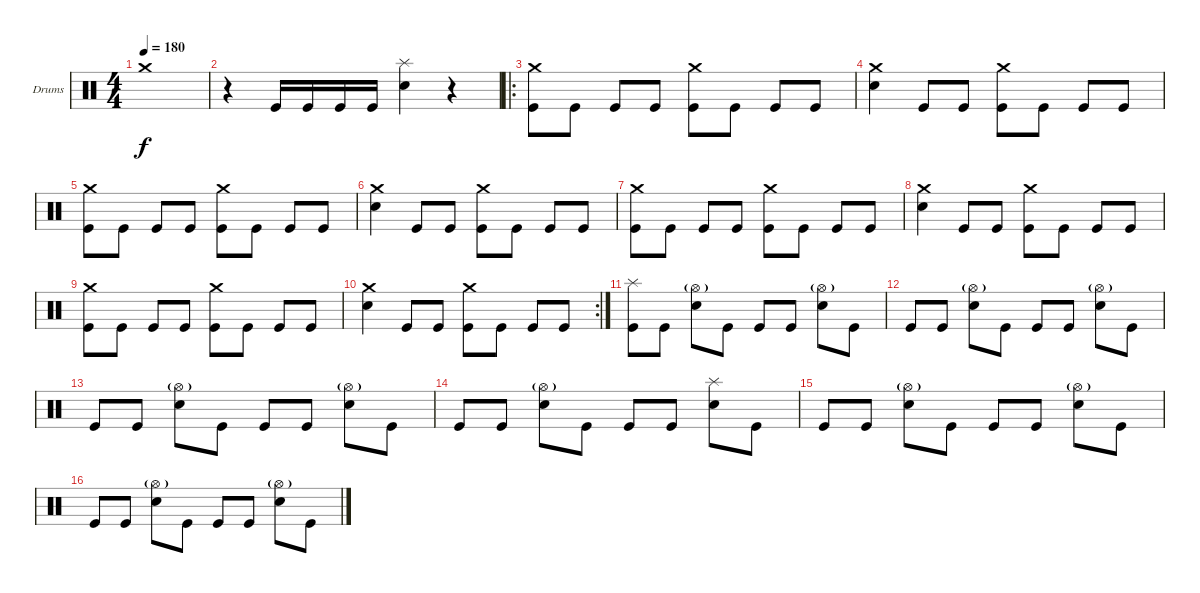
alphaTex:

\bracketExtendMode groupsimilarinstruments
\firstSystemTrackNameOrientation horizontal
\otherSystemsTrackNameOrientation horizontal
\track ("Drumkit" "Drums") {instrument percussion}
\staff {score}
\articulation defaults
\ts (4 4)
\tempo 180
\clef neutral
\ks c "Crash medium (hit)".1{dy f}
|
r.4 "Kick (hit)".16 "Kick (hit)".16 "Kick (hit)".16 "Kick (hit)".16 ("Splash (hit)" "Snare (hit) 2").4 r.4 |
\ro
("Crash medium (hit)" "Kick (hit)").8 "Kick (hit)".8 "Kick (hit)".8 "Kick (hit)".8 ("Crash medium (hit)" "Kick (hit)").8 "Kick (hit)".8 "Kick (hit)".8 "Kick (hit)".8 |
("Crash medium (hit)" "Snare (hit) 2").4 "Kick (hit)".8 "Kick (hit)".8 ("Crash medium (hit)" "Kick (hit)").8 "Kick (hit)".8 "Kick (hit)".8 "Kick (hit)".8 |
("Crash medium (hit)" "Kick (hit)").8 "Kick (hit)".8 "Kick (hit)".8 "Kick (hit)".8 ("Crash medium (hit)" "Kick (hit)").8 "Kick (hit)".8 "Kick (hit)".8 "Kick (hit)".8 |
("Crash medium (hit)" "Snare (hit) 2").4 "Kick (hit)".8 "Kick (hit)".8 ("Crash medium (hit)" "Kick (hit)").8 "Kick (hit)".8 "Kick (hit)".8 "Kick (hit)".8 |
("Crash medium (hit)" "Kick (hit)").8 "Kick (hit)".8 "Kick (hit)".8 "Kick (hit)".8 ("Crash medium (hit)" "Kick (hit)").8 "Kick (hit)".8 "Kick (hit)".8 "Kick (hit)".8 |
("Crash medium (hit)" "Snare (hit) 2").4 "Kick (hit)".8 "Kick (hit)".8 ("Crash medium (hit)" "Kick (hit)").8 "Kick (hit)".8 "Kick (hit)".8 "Kick (hit)".8 |
("Crash medium (hit)" "Kick (hit)").8 "Kick (hit)".8 "Kick (hit)".8 "Kick (hit)".8 ("Crash medium (hit)" "Kick (hit)").8 "Kick (hit)".8 "Kick (hit)".8 "Kick (hit)".8 |
\rc 2
("Crash medium (hit)" "Snare (hit) 2").4 "Kick (hit)".8 "Kick (hit)".8 ("Crash medium (hit)" "Kick (hit)").8 "Kick (hit)".8 "Kick (hit)".8 "Kick (hit)".8 |
("Splash (hit)" "Kick (hit)").8 "Kick (hit)".8 ("Hi-Hat (open)"{g} "Snare (hit) 2").8 "Kick (hit)".8 "Kick (hit)".8 "Kick (hit)".8 ("Hi-Hat (open)"{g} "Snare (hit) 2").8 "Kick (hit)".8 |
"Kick (hit)".8 "Kick (hit)".8 ("Hi-Hat (open)"{g} "Snare (hit) 2").8 "Kick (hit)".8 "Kick (hit)".8 "Kick (hit)".8 ("Hi-Hat (open)"{g} "Snare (hit) 2").8 "Kick (hit)".8 |
"Kick (hit)".8 "Kick (hit)".8 ("Hi-Hat (open)"{g} "Snare (hit) 2").8 "Kick (hit)".8 "Kick (hit)".8 "Kick (hit)".8 ("Hi-Hat (open)"{g} "Snare (hit) 2").8 "Kick (hit)".8 |
"Kick (hit)".8 "Kick (hit)".8 ("Hi-Hat (open)"{g} "Snare (hit) 2").8 "Kick (hit)".8 "Kick (hit)".8 "Kick (hit)".8 ("Splash (hit)" "Snare (hit) 2").8 "Kick (hit)".8 |
"Kick (hit)".8 "Kick (hit)".8 ("Hi-Hat (open)"{g} "Snare (hit) 2").8 "Kick (hit)".8 "Kick (hit)".8 "Kick (hit)".8 ("Hi-Hat (open)"{g} "Snare (hit) 2").8 "Kick (hit)".8 |
"Kick (hit)".8 "Kick (hit)".8 ("Hi-Hat (open)"{g} "Snare (hit) 2").8 "Kick (hit)".8 "Kick (hit)".8 "Kick (hit)".8 ("Hi-Hat (open)"{g} "Snare (hit) 2").8 "Kick (hit)".8
